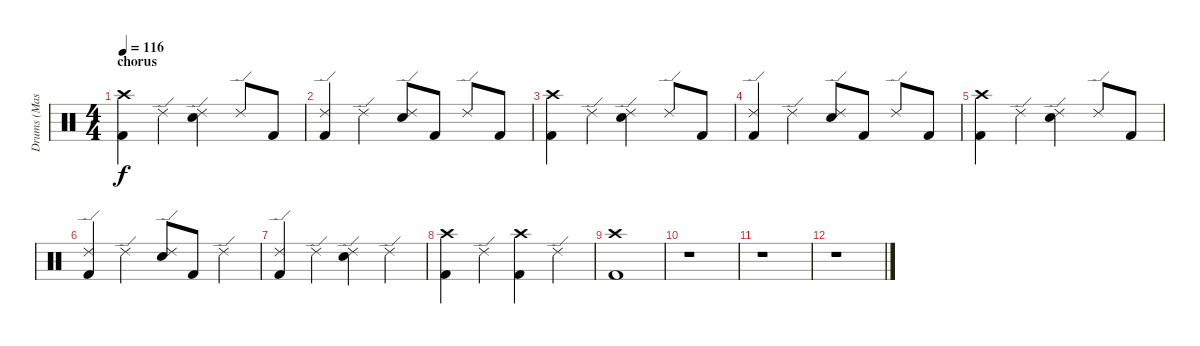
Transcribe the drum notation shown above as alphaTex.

\track ("Drums (Mason)" "Drums (Mas") {instrument percussion}
\staff {score}
\articulation defaults
\ts (4 4)
\section ("" "chorus")
\tempo 116
\clef neutral
\ks c
("Crash high (hit)" "Kick (hit) 2").4{dy f} "Ride (edge) 2".4 ("Ride (edge) 2" "Electric Snare (hit)").4 "Ride (edge) 2".8 "Kick (hit) 2".8 |
("Ride (edge) 2" "Kick (hit) 2").4 "Ride (edge) 2".4 ("Ride (edge) 2" "Electric Snare (hit)").8 "Kick (hit) 2".8 "Ride (edge) 2".8 "Kick (hit) 2".8 |
("Crash high (hit)" "Kick (hit) 2").4 "Ride (edge) 2".4 ("Ride (edge) 2" "Electric Snare (hit)").4 "Ride (edge) 2".8 "Kick (hit) 2".8 |
("Ride (edge) 2" "Kick (hit) 2").4 "Ride (edge) 2".4 ("Ride (edge) 2" "Electric Snare (hit)").8 "Kick (hit) 2".8 "Ride (edge) 2".8 "Kick (hit) 2".8 |
("Crash high (hit)" "Kick (hit) 2").4 "Ride (edge) 2".4 ("Ride (edge) 2" "Electric Snare (hit)").4 "Ride (edge) 2".8 "Kick (hit) 2".8 |
("Ride (edge) 2" "Kick (hit) 2").4 "Ride (edge) 2".4 ("Ride (edge) 2" "Electric Snare (hit)").8 "Kick (hit) 2".8 "Ride (edge) 2".4 |
("Ride (edge) 2" "Kick (hit) 2").4 "Ride (edge) 2".4 ("Ride (edge) 2" "Electric Snare (hit)").4 "Ride (edge) 2".4 |
("Crash high (hit)" "Kick (hit) 2").4 "Ride (edge) 2".4 ("Crash high (hit)" "Kick (hit) 2").4 "Ride (edge) 2".4 |
("Crash high (hit)" "Kick (hit) 2").1 |
r.1 |
r.1 |
r.1
